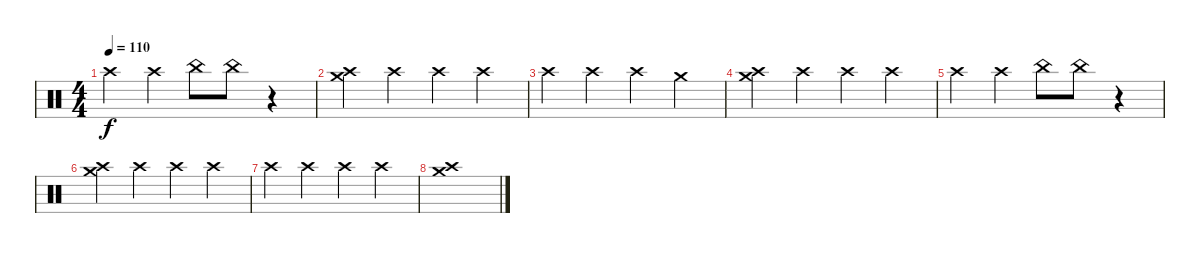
\track "" {instrument percussion}
\staff {score}
\articulation defaults
\ts (4 4)
\tempo 110
\clef neutral
\ks c "Crash high (hit)".4{dy f} "Crash high (hit)".4 "China (hit)".8 "China (hit)".8
r.4 |
("Crash high (hit)" "Crash medium (hit)").4 "Crash high (hit)".4 "Crash high (hit)".4 "Crash high (hit)".4 |
"Crash high (hit)".4 "Crash high (hit)".4 "Crash high (hit)".4 "Crash medium (hit)".4 |
("Crash high (hit)" "Crash medium (hit)").4 "Crash high (hit)".4 "Crash high (hit)".4 "Crash high (hit)".4 |
"Crash high (hit)".4 "Crash high (hit)".4 "China (hit)".8 "China (hit)".8 r.4 |
("Crash medium (hit)" "Crash high (hit)").4 "Crash high (hit)".4 "Crash high (hit)".4 "Crash high (hit)".4 |
"Crash high (hit)".4 "Crash high (hit)".4 "Crash high (hit)".4 "Crash high (hit)".4 |
("Crash medium (hit)" "Crash high (hit)").1
